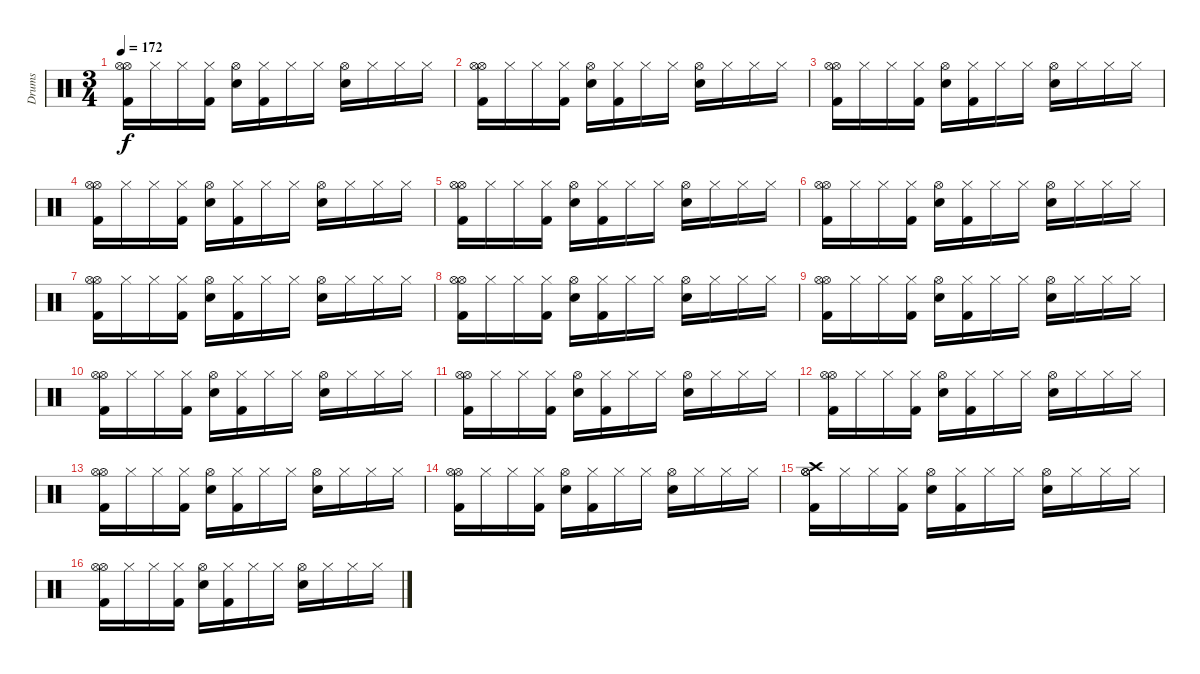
\track ("Drums" "Drums") {instrument percussion}
\staff {score}
\articulation defaults
\ts (3 4)
\tempo 172
\clef neutral
\ks c
("Kick (hit) 2" "Hi-Hat (open)" "Hi-Hat (open)").16{dy f} "Hi-Hat (closed)".16 "Hi-Hat (closed)".16 ("Hi-Hat (closed)" "Kick (hit) 2").16 ("Snare (hit) 2" "Hi-Hat (open)").16 ("Kick (hit) 2" "Hi-Hat (closed)").16 "Hi-Hat (closed)".16 "Hi-Hat (closed)".16 ("Hi-Hat (open)" "Snare (hit) 2").16 "Hi-Hat (closed)".16 "Hi-Hat (closed)".16 "Hi-Hat (closed)".16 |
("Kick (hit) 2" "Hi-Hat (open)" "Hi-Hat (open)").16 "Hi-Hat (closed)".16 "Hi-Hat (closed)".16 ("Hi-Hat (closed)" "Kick (hit) 2").16 ("Snare (hit) 2" "Hi-Hat (open)").16 ("Kick (hit) 2" "Hi-Hat (closed)").16 "Hi-Hat (closed)".16 "Hi-Hat (closed)".16 ("Hi-Hat (open)" "Snare (hit) 2").16 "Hi-Hat (closed)".16 "Hi-Hat (closed)".16 "Hi-Hat (closed)".16 |
("Kick (hit) 2" "Hi-Hat (open)" "Hi-Hat (open)").16 "Hi-Hat (closed)".16 "Hi-Hat (closed)".16 ("Hi-Hat (closed)" "Kick (hit) 2").16 ("Snare (hit) 2" "Hi-Hat (open)").16 ("Kick (hit) 2" "Hi-Hat (closed)").16 "Hi-Hat (closed)".16 "Hi-Hat (closed)".16 ("Hi-Hat (open)" "Snare (hit) 2").16 "Hi-Hat (closed)".16 "Hi-Hat (closed)".16 "Hi-Hat (closed)".16 |
("Kick (hit) 2" "Hi-Hat (open)" "Hi-Hat (open)").16 "Hi-Hat (closed)".16 "Hi-Hat (closed)".16 ("Hi-Hat (closed)" "Kick (hit) 2").16 ("Snare (hit) 2" "Hi-Hat (open)").16 ("Kick (hit) 2" "Hi-Hat (closed)").16 "Hi-Hat (closed)".16 "Hi-Hat (closed)".16 ("Hi-Hat (open)" "Snare (hit) 2").16 "Hi-Hat (closed)".16 "Hi-Hat (closed)".16 "Hi-Hat (closed)".16 |
("Kick (hit) 2" "Hi-Hat (open)" "Hi-Hat (open)").16 "Hi-Hat (closed)".16 "Hi-Hat (closed)".16 ("Hi-Hat (closed)" "Kick (hit) 2").16 ("Snare (hit) 2" "Hi-Hat (open)").16 ("Kick (hit) 2" "Hi-Hat (closed)").16 "Hi-Hat (closed)".16 "Hi-Hat (closed)".16 ("Hi-Hat (open)" "Snare (hit) 2").16 "Hi-Hat (closed)".16 "Hi-Hat (closed)".16 "Hi-Hat (closed)".16 |
("Kick (hit) 2" "Hi-Hat (open)" "Hi-Hat (open)").16 "Hi-Hat (closed)".16 "Hi-Hat (closed)".16 ("Hi-Hat (closed)" "Kick (hit) 2").16 ("Snare (hit) 2" "Hi-Hat (open)").16 ("Kick (hit) 2" "Hi-Hat (closed)").16 "Hi-Hat (closed)".16 "Hi-Hat (closed)".16 ("Hi-Hat (open)" "Snare (hit) 2").16 "Hi-Hat (closed)".16 "Hi-Hat (closed)".16 "Hi-Hat (closed)".16 |
("Kick (hit) 2" "Hi-Hat (open)" "Hi-Hat (open)").16 "Hi-Hat (closed)".16 "Hi-Hat (closed)".16 ("Hi-Hat (closed)" "Kick (hit) 2").16 ("Snare (hit) 2" "Hi-Hat (open)").16 ("Kick (hit) 2" "Hi-Hat (closed)").16 "Hi-Hat (closed)".16 "Hi-Hat (closed)".16 ("Hi-Hat (open)" "Snare (hit) 2").16 "Hi-Hat (closed)".16 "Hi-Hat (closed)".16 "Hi-Hat (closed)".16 |
("Kick (hit) 2" "Hi-Hat (open)" "Hi-Hat (open)").16 "Hi-Hat (closed)".16 "Hi-Hat (closed)".16 ("Hi-Hat (closed)" "Kick (hit) 2").16 ("Snare (hit) 2" "Hi-Hat (open)").16 ("Kick (hit) 2" "Hi-Hat (closed)").16 "Hi-Hat (closed)".16 "Hi-Hat (closed)".16 ("Hi-Hat (open)" "Snare (hit) 2").16 "Hi-Hat (closed)".16 "Hi-Hat (closed)".16 "Hi-Hat (closed)".16 |
("Kick (hit) 2" "Hi-Hat (open)" "Hi-Hat (open)").16 "Hi-Hat (closed)".16 "Hi-Hat (closed)".16 ("Hi-Hat (closed)" "Kick (hit) 2").16 ("Snare (hit) 2" "Hi-Hat (open)").16 ("Kick (hit) 2" "Hi-Hat (closed)").16 "Hi-Hat (closed)".16 "Hi-Hat (closed)".16 ("Hi-Hat (open)" "Snare (hit) 2").16 "Hi-Hat (closed)".16 "Hi-Hat (closed)".16 "Hi-Hat (closed)".16 |
("Kick (hit) 2" "Hi-Hat (open)" "Hi-Hat (open)").16 "Hi-Hat (closed)".16 "Hi-Hat (closed)".16 ("Hi-Hat (closed)" "Kick (hit) 2").16 ("Snare (hit) 2" "Hi-Hat (open)").16 ("Kick (hit) 2" "Hi-Hat (closed)").16 "Hi-Hat (closed)".16 "Hi-Hat (closed)".16 ("Hi-Hat (open)" "Snare (hit) 2").16 "Hi-Hat (closed)".16 "Hi-Hat (closed)".16 "Hi-Hat (closed)".16 |
("Kick (hit) 2" "Hi-Hat (open)" "Hi-Hat (open)").16 "Hi-Hat (closed)".16 "Hi-Hat (closed)".16 ("Hi-Hat (closed)" "Kick (hit) 2").16 ("Snare (hit) 2" "Hi-Hat (open)").16 ("Kick (hit) 2" "Hi-Hat (closed)").16 "Hi-Hat (closed)".16 "Hi-Hat (closed)".16 ("Hi-Hat (open)" "Snare (hit) 2").16 "Hi-Hat (closed)".16 "Hi-Hat (closed)".16 "Hi-Hat (closed)".16 |
("Kick (hit) 2" "Hi-Hat (open)" "Hi-Hat (open)").16 "Hi-Hat (closed)".16 "Hi-Hat (closed)".16 ("Hi-Hat (closed)" "Kick (hit) 2").16 ("Snare (hit) 2" "Hi-Hat (open)").16 ("Kick (hit) 2" "Hi-Hat (closed)").16 "Hi-Hat (closed)".16 "Hi-Hat (closed)".16 ("Hi-Hat (open)" "Snare (hit) 2").16 "Hi-Hat (closed)".16 "Hi-Hat (closed)".16 "Hi-Hat (closed)".16 |
("Kick (hit) 2" "Hi-Hat (open)" "Hi-Hat (open)").16 "Hi-Hat (closed)".16 "Hi-Hat (closed)".16 ("Hi-Hat (closed)" "Kick (hit) 2").16 ("Snare (hit) 2" "Hi-Hat (open)").16 ("Kick (hit) 2" "Hi-Hat (closed)").16 "Hi-Hat (closed)".16 "Hi-Hat (closed)".16 ("Hi-Hat (open)" "Snare (hit) 2").16 "Hi-Hat (closed)".16 "Hi-Hat (closed)".16 "Hi-Hat (closed)".16 |
("Kick (hit) 2" "Hi-Hat (open)" "Hi-Hat (open)").16 "Hi-Hat (closed)".16 "Hi-Hat (closed)".16 ("Hi-Hat (closed)" "Kick (hit) 2").16 ("Snare (hit) 2" "Hi-Hat (open)").16 ("Kick (hit) 2" "Hi-Hat (closed)").16 "Hi-Hat (closed)".16 "Hi-Hat (closed)".16 ("Hi-Hat (open)" "Snare (hit) 2").16 "Hi-Hat (closed)".16 "Hi-Hat (closed)".16 "Hi-Hat (closed)".16 |
("Crash high (hit)" "Kick (hit) 2" "Hi-Hat (open)" "Hi-Hat (open)").16 "Hi-Hat (closed)".16 "Hi-Hat (closed)".16 ("Hi-Hat (closed)" "Kick (hit) 2").16 ("Snare (hit) 2" "Hi-Hat (open)").16 ("Kick (hit) 2" "Hi-Hat (closed)").16 "Hi-Hat (closed)".16 "Hi-Hat (closed)".16 ("Hi-Hat (open)" "Snare (hit) 2").16 "Hi-Hat (closed)".16 "Hi-Hat (closed)".16 "Hi-Hat (closed)".16 |
("Kick (hit) 2" "Hi-Hat (open)" "Hi-Hat (open)").16 "Hi-Hat (closed)".16 "Hi-Hat (closed)".16 ("Hi-Hat (closed)" "Kick (hit) 2").16 ("Snare (hit) 2" "Hi-Hat (open)").16 ("Kick (hit) 2" "Hi-Hat (closed)").16 "Hi-Hat (closed)".16 "Hi-Hat (closed)".16 ("Hi-Hat (open)" "Snare (hit) 2").16 "Hi-Hat (closed)".16 "Hi-Hat (closed)".16 "Hi-Hat (closed)".16
